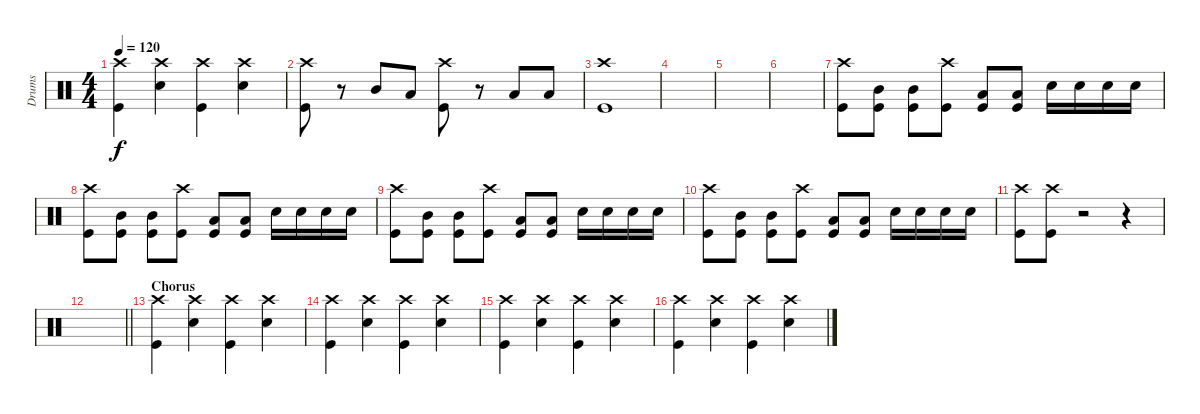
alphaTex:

\track ("Drums" "Drums") {instrument percussion}
\staff {score}
\articulation defaults
\ts (4 4)
\tempo 120
\clef neutral
\ks c
("Crash high (hit)" "Kick (hit)").4{dy f} ("Crash high (hit)" "Snare (hit) 2").4 ("Crash high (hit)" "Kick (hit)").4 ("Crash high (hit)" "Snare (hit) 2").4 |
("Crash high (hit)" "Kick (hit)").8 r.8 "Mid Tom (hit)".8 "Low Tom (hit)".8 ("Crash high (hit)" "Kick (hit)").8 r.8 "Low Tom (hit)".8 "Low Floor Tom (hit)".8 |
("Crash high (hit)" "Kick (hit)").1 |
|
|
|
("Crash high (hit)" "Kick (hit)").8 ("Mid Tom (hit)" "Kick (hit)").8 ("Mid Tom (hit)" "Kick (hit)").8 ("Crash high (hit)" "Kick (hit)").8 ("Low Tom (hit)" "Kick (hit)").8 ("Low Tom (hit)" "Kick (hit)").8 "Snare (hit) 2".16 "Snare (hit) 2".16 "Snare (hit) 2".16 "Snare (hit) 2".16 |
("Crash high (hit)" "Kick (hit)").8 ("Mid Tom (hit)" "Kick (hit)").8 ("Mid Tom (hit)" "Kick (hit)").8 ("Crash high (hit)" "Kick (hit)").8 ("Low Tom (hit)" "Kick (hit)").8 ("Low Tom (hit)" "Kick (hit)").8 "Snare (hit) 2".16 "Snare (hit) 2".16 "Snare (hit) 2".16 "Snare (hit) 2".16 |
("Crash high (hit)" "Kick (hit)").8 ("Mid Tom (hit)" "Kick (hit)").8 ("Mid Tom (hit)" "Kick (hit)").8 ("Crash high (hit)" "Kick (hit)").8 ("Low Tom (hit)" "Kick (hit)").8 ("Low Tom (hit)" "Kick (hit)").8 "Snare (hit) 2".16 "Snare (hit) 2".16 "Snare (hit) 2".16 "Snare (hit) 2".16 |
("Crash high (hit)" "Kick (hit)").8 ("Mid Tom (hit)" "Kick (hit)").8 ("Mid Tom (hit)" "Kick (hit)").8 ("Crash high (hit)" "Kick (hit)").8 ("Low Tom (hit)" "Kick (hit)").8 ("Low Tom (hit)" "Kick (hit)").8 "Snare (hit) 2".16 "Snare (hit) 2".16 "Snare (hit) 2".16 "Snare (hit) 2".16 |
("Crash high (hit)" "Kick (hit)").8 ("Crash high (hit)" "Kick (hit)").8 r.2 r.4 |
\barLineRight lightlight
|
\section ("" "Chorus")
("Crash high (hit)" "Kick (hit)").4 ("Crash high (hit)" "Snare (hit) 2").4 ("Crash high (hit)" "Kick (hit)").4 ("Crash high (hit)" "Snare (hit) 2").4 |
("Crash high (hit)" "Kick (hit)").4 ("Crash high (hit)" "Snare (hit) 2").4 ("Crash high (hit)" "Kick (hit)").4 ("Crash high (hit)" "Snare (hit) 2").4 |
("Crash high (hit)" "Kick (hit)").4 ("Crash high (hit)" "Snare (hit) 2").4 ("Crash high (hit)" "Kick (hit)").4 ("Crash high (hit)" "Snare (hit) 2").4 |
("Crash high (hit)" "Kick (hit)").4 ("Crash high (hit)" "Snare (hit) 2").4 ("Crash high (hit)" "Kick (hit)").4 ("Crash high (hit)" "Snare (hit) 2").4
